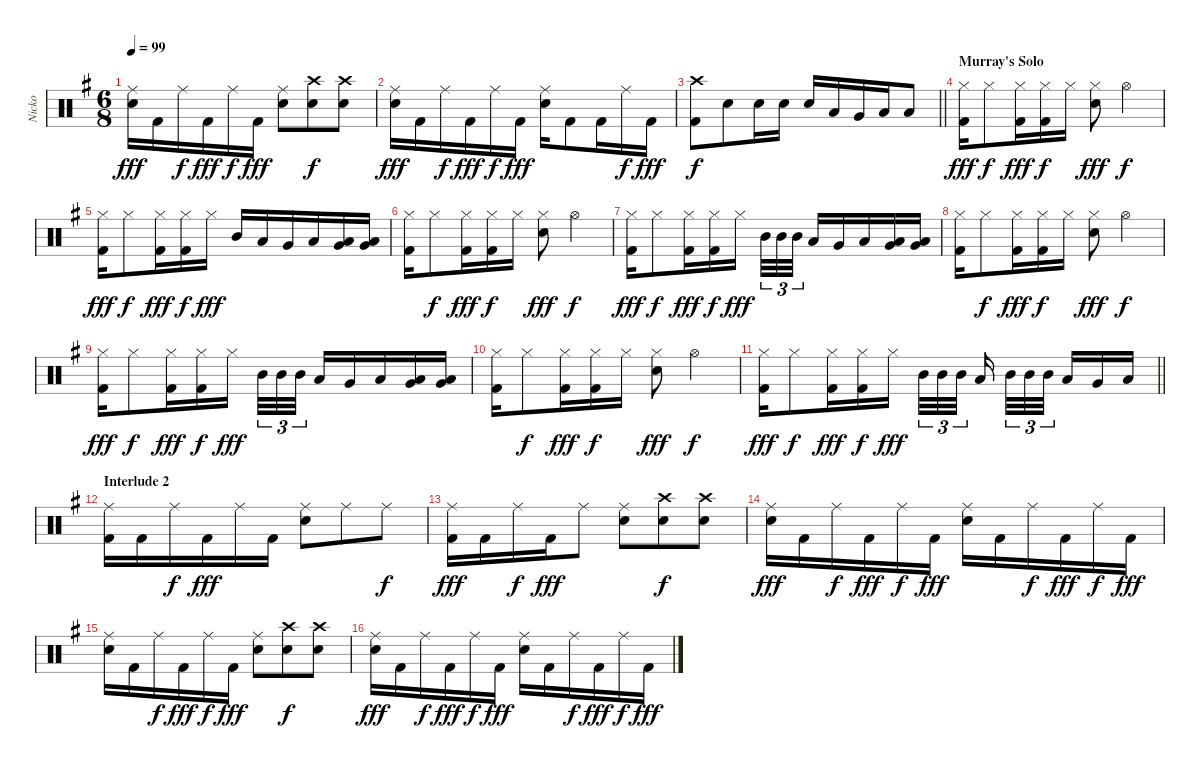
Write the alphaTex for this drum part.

\track ("Nicko" "Nicko") {instrument percussion}
\staff {score}
\articulation defaults
\ts (6 8)
\tempo 99
\clef neutral
\ks eminor
("Ride (middle)" "Snare (hit) 2").16{dy fff} "Kick (hit) 2".16 "Ride (middle)".16{dy f} "Kick (hit) 2".16{dy fff} "Ride (middle)".16{dy f} "Kick (hit) 2".16{dy fff} ("Ride (middle)" "Snare (hit) 2").8 ("Crash high (hit)" "Snare (hit) 2").8{dy f} ("Crash high (hit)" "Snare (hit) 2").8 |
("Ride (middle)" "Snare (hit) 2").16{dy fff} "Kick (hit) 2".16 "Ride (middle)".16{dy f} "Kick (hit) 2".16{dy fff} "Ride (middle)".16{dy f} "Kick (hit) 2".16{dy fff} ("Ride (middle)" "Snare (hit) 2").16 "Kick (hit) 2".8 "Kick (hit) 2".16 "Ride (middle)".16{dy f} "Kick (hit) 2".16{dy fff} |
\barLineRight lightlight
("Crash high (hit)" "Kick (hit) 2").8{dy f} "Snare (hit) 2".8 "Snare (hit) 2".16 "Snare (hit) 2".16 "Snare (hit) 2".16 "Low Tom (hit)".16 "Very Low Tom (hit)".16 "Low Floor Tom (hit)".16 "Low Floor Tom (hit)".8 |
\section ("" "Murray's Solo")
("Hi-Hat (closed)" "Kick (hit) 2").16{dy fff} "Hi-Hat (closed)".8{dy f} ("Hi-Hat (closed)" "Kick (hit) 2").16{dy fff} ("Hi-Hat (closed)" "Kick (hit) 2").16{dy f} "Hi-Hat (closed)".16 ("Hi-Hat (closed)" "Snare (hit) 2").8{dy fff} "Hi-Hat (open)".4{dy f} |
("Hi-Hat (closed)" "Kick (hit) 2").16{dy fff} "Hi-Hat (closed)".8{dy f} ("Hi-Hat (closed)" "Kick (hit) 2").16{dy fff} ("Hi-Hat (closed)" "Kick (hit) 2").16{dy f} "Hi-Hat (closed)".16{dy fff} "Mid Tom (hit)".16 "Low Tom (hit)".16 "Very Low Tom (hit)".16 "Low Floor Tom (hit)".16 ("Very Low Tom (hit)" "Low Floor Tom (hit)").16 ("Very Low Tom (hit)" "Low Floor Tom (hit)").16 |
("Hi-Hat (closed)" "Kick (hit) 2").16 "Hi-Hat (closed)".8{dy f} ("Hi-Hat (closed)" "Kick (hit) 2").16{dy fff} ("Hi-Hat (closed)" "Kick (hit) 2").16{dy f} "Hi-Hat (closed)".16 ("Hi-Hat (closed)" "Snare (hit) 2").8{dy fff} "Hi-Hat (open)".4{dy f} |
("Hi-Hat (closed)" "Kick (hit) 2").16{dy fff} "Hi-Hat (closed)".8{dy f} ("Hi-Hat (closed)" "Kick (hit) 2").16{dy fff} ("Hi-Hat (closed)" "Kick (hit) 2").16{dy f} "Hi-Hat (closed)".16{dy fff} "Mid Tom (hit)".32{tu (3 2)} "Mid Tom (hit)".32{tu (3 2)} "Mid Tom (hit)".32{tu (3 2)} "Low Tom (hit)".16 "Very Low Tom (hit)".16 "Low Floor Tom (hit)".16 ("Very Low Tom (hit)" "Low Floor Tom (hit)").16 ("Very Low Tom (hit)" "Low Floor Tom (hit)").16 |
("Hi-Hat (closed)" "Kick (hit) 2").16 "Hi-Hat (closed)".8{dy f} ("Hi-Hat (closed)" "Kick (hit) 2").16{dy fff} ("Hi-Hat (closed)" "Kick (hit) 2").16{dy f} "Hi-Hat (closed)".16 ("Hi-Hat (closed)" "Snare (hit) 2").8{dy fff} "Hi-Hat (open)".4{dy f} |
("Hi-Hat (closed)" "Kick (hit) 2").16{dy fff} "Hi-Hat (closed)".8{dy f} ("Hi-Hat (closed)" "Kick (hit) 2").16{dy fff} ("Hi-Hat (closed)" "Kick (hit) 2").16{dy f} "Hi-Hat (closed)".16{dy fff} "Mid Tom (hit)".32{tu (3 2)} "Mid Tom (hit)".32{tu (3 2)} "Mid Tom (hit)".32{tu (3 2)} "Low Tom (hit)".16 "Very Low Tom (hit)".16 "Low Floor Tom (hit)".16 ("Very Low Tom (hit)" "Low Floor Tom (hit)").16 ("Very Low Tom (hit)" "Low Floor Tom (hit)").16 |
("Hi-Hat (closed)" "Kick (hit) 2").16 "Hi-Hat (closed)".8{dy f} ("Hi-Hat (closed)" "Kick (hit) 2").16{dy fff} ("Hi-Hat (closed)" "Kick (hit) 2").16{dy f} "Hi-Hat (closed)".16 ("Hi-Hat (closed)" "Snare (hit) 2").8{dy fff} "Hi-Hat (open)".4{dy f} |
\barLineRight lightlight
("Hi-Hat (closed)" "Kick (hit) 2").16{dy fff} "Hi-Hat (closed)".8{dy f} ("Hi-Hat (closed)" "Kick (hit) 2").16{dy fff} ("Hi-Hat (closed)" "Kick (hit) 2").16{dy f} "Hi-Hat (closed)".16{dy fff} "Mid Tom (hit)".32{tu (3 2)} "Mid Tom (hit)".32{tu (3 2)} "Mid Tom (hit)".32{tu (3 2)} "Low Tom (hit)".16 "Mid Tom (hit)".32{tu (3 2)} "Mid Tom (hit)".32{tu (3 2)} "Mid Tom (hit)".32{tu (3 2)} "Low Tom (hit)".16 "Very Low Tom (hit)".16 "Low Floor Tom (hit)".16 |
\section ("" "Interlude 2")
("Ride (middle)" "Kick (hit) 2").16 "Kick (hit) 2".16 "Ride (middle)".16{dy f} "Kick (hit) 2".16{dy fff} "Ride (middle)".16 "Kick (hit) 2".16 ("Ride (middle)" "Snare (hit) 2").8 "Ride (middle)".8 "Ride (middle)".8{dy f} |
("Ride (middle)" "Kick (hit) 2").16{dy fff} "Kick (hit) 2".16 "Ride (middle)".16{dy f} "Kick (hit) 2".16{dy fff} "Ride (middle)".8 ("Ride (middle)" "Snare (hit) 2").8 ("Crash high (hit)" "Snare (hit) 2").8{dy f} ("Crash high (hit)" "Snare (hit) 2").8 |
("Ride (middle)" "Snare (hit) 2").16{dy fff} "Kick (hit) 2".16 "Ride (middle)".16{dy f} "Kick (hit) 2".16{dy fff} "Ride (middle)".16{dy f} "Kick (hit) 2".16{dy fff} ("Ride (middle)" "Snare (hit) 2").16 "Kick (hit) 2".16 "Ride (middle)".16{dy f} "Kick (hit) 2".16{dy fff} "Ride (middle)".16{dy f} "Kick (hit) 2".16{dy fff} |
("Ride (middle)" "Snare (hit) 2").16 "Kick (hit) 2".16 "Ride (middle)".16{dy f} "Kick (hit) 2".16{dy fff} "Ride (middle)".16{dy f} "Kick (hit) 2".16{dy fff} ("Ride (middle)" "Snare (hit) 2").8 ("Crash high (hit)" "Snare (hit) 2").8{dy f} ("Crash high (hit)" "Snare (hit) 2").8 |
("Ride (middle)" "Snare (hit) 2").16{dy fff} "Kick (hit) 2".16 "Ride (middle)".16{dy f} "Kick (hit) 2".16{dy fff} "Ride (middle)".16{dy f} "Kick (hit) 2".16{dy fff} ("Ride (middle)" "Snare (hit) 2").16 "Kick (hit) 2".16 "Ride (middle)".16{dy f} "Kick (hit) 2".16{dy fff} "Ride (middle)".16{dy f} "Kick (hit) 2".16{dy fff}
